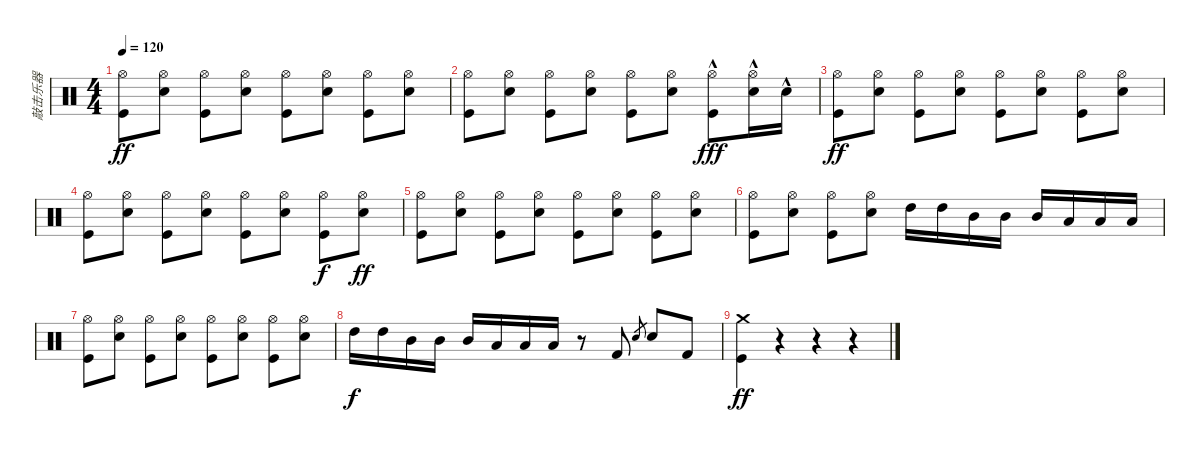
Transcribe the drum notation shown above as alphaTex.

\track ("敲击乐器" "敲击乐器") {instrument percussion}
\staff {score}
\articulation defaults
\ts (4 4)
\tempo 120
\clef neutral
\ks c
("Hi-Hat (open)" "Kick (hit)").8{dy ff} ("Hi-Hat (open)" "Electric Snare (hit)").8 ("Hi-Hat (open)" "Kick (hit)").8 ("Hi-Hat (open)" "Electric Snare (hit)").8 ("Hi-Hat (open)" "Kick (hit)").8 ("Hi-Hat (open)" "Electric Snare (hit)").8 ("Hi-Hat (open)" "Kick (hit)").8 ("Hi-Hat (open)" "Electric Snare (hit)").8 |
("Hi-Hat (open)" "Kick (hit)").8 ("Hi-Hat (open)" "Electric Snare (hit)").8 ("Hi-Hat (open)" "Kick (hit)").8 ("Hi-Hat (open)" "Electric Snare (hit)").8 ("Hi-Hat (open)" "Kick (hit)").8 ("Hi-Hat (open)" "Electric Snare (hit)").8 ("Hi-Hat (open)" "Kick (hit)"{hac}).8{dy fff} ("Hi-Hat (open)" "Electric Snare (hit)"{hac}).16 "Electric Snare (hit)"{hac}.16 |
("Hi-Hat (open)" "Kick (hit)").8{dy ff} ("Hi-Hat (open)" "Electric Snare (hit)").8 ("Hi-Hat (open)" "Kick (hit)").8 ("Hi-Hat (open)" "Electric Snare (hit)").8 ("Hi-Hat (open)" "Kick (hit)").8 ("Hi-Hat (open)" "Electric Snare (hit)").8 ("Hi-Hat (open)" "Kick (hit)").8 ("Hi-Hat (open)" "Electric Snare (hit)").8 |
("Hi-Hat (open)" "Kick (hit)").8 ("Hi-Hat (open)" "Electric Snare (hit)").8 ("Hi-Hat (open)" "Kick (hit)").8 ("Hi-Hat (open)" "Electric Snare (hit)").8 ("Hi-Hat (open)" "Kick (hit)").8 ("Hi-Hat (open)" "Electric Snare (hit)").8 ("Hi-Hat (open)" "Kick (hit)").8{dy f} ("Hi-Hat (open)" "Electric Snare (hit)").8{dy ff} |
("Hi-Hat (open)" "Kick (hit)").8 ("Hi-Hat (open)" "Electric Snare (hit)").8 ("Hi-Hat (open)" "Kick (hit)").8 ("Hi-Hat (open)" "Electric Snare (hit)").8 ("Hi-Hat (open)" "Kick (hit)").8 ("Hi-Hat (open)" "Electric Snare (hit)").8 ("Hi-Hat (open)" "Kick (hit)").8 ("Hi-Hat (open)" "Electric Snare (hit)").8 |
("Hi-Hat (open)" "Kick (hit)").8 ("Hi-Hat (open)" "Electric Snare (hit)").8 ("Hi-Hat (open)" "Kick (hit)").8 ("Hi-Hat (open)" "Electric Snare (hit)").8 "High Tom (hit)".16 "High Tom (hit)".16 "Mid Tom (hit)".16 "Mid Tom (hit)".16 "Mid Tom (hit)".16 "Low Tom (hit)".16 "Low Tom (hit)".16 "Low Floor Tom (hit)".16 |
("Hi-Hat (open)" "Kick (hit)").8 ("Hi-Hat (open)" "Electric Snare (hit)").8 ("Hi-Hat (open)" "Kick (hit)").8 ("Hi-Hat (open)" "Electric Snare (hit)").8 ("Hi-Hat (open)" "Kick (hit)").8 ("Hi-Hat (open)" "Electric Snare (hit)").8 ("Hi-Hat (open)" "Kick (hit)").8 ("Hi-Hat (open)" "Electric Snare (hit)").8 |
"High Tom (hit)".16{dy f} "High Tom (hit)".16 "Mid Tom (hit)".16 "Mid Tom (hit)".16 "Mid Tom (hit)".16 "Low Tom (hit)".16 "Low Tom (hit)".16 "Low Floor Tom (hit)".16 r.8 "Kick (hit) 2".8 "Electric Snare (hit)".8{gr} "Electric Snare (hit)".8 "Kick (hit) 2".8 |
("Crash medium (hit)" "Kick (hit)").4{dy ff} r.4 r.4 r.4
